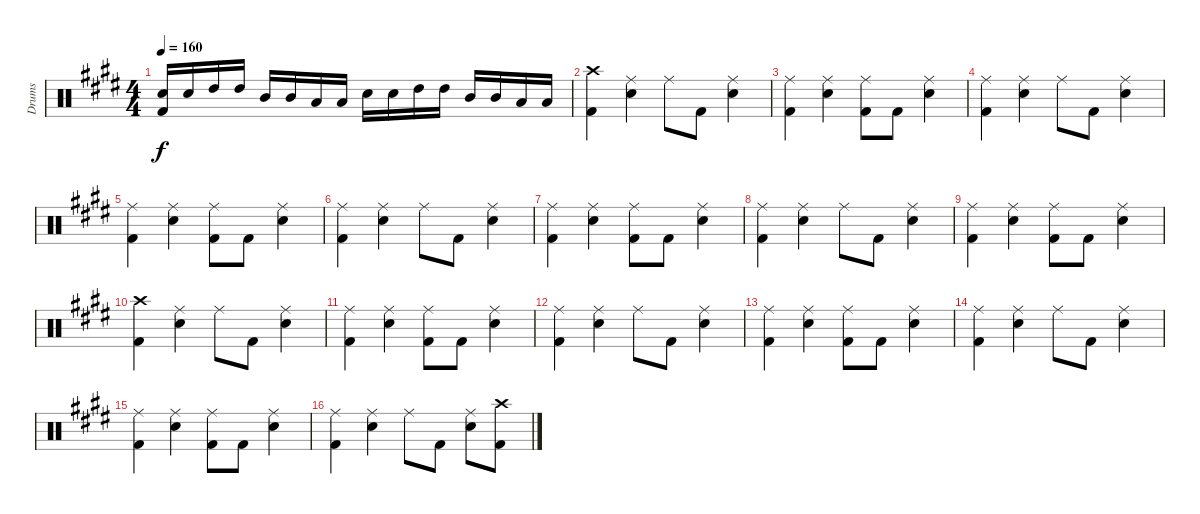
\track ("Drums" "Drums") {instrument percussion}
\staff {score}
\articulation defaults
\ts (4 4)
\tempo 160
\clef neutral
\ks e
("Electric Snare (hit)" "Kick (hit) 2").16{dy f} "Electric Snare (hit)".16 "High Tom (hit)".16 "High Tom (hit)".16 "Mid Tom (hit)".16 "Mid Tom (hit)".16 "Low Tom (hit)".16 "Low Tom (hit)".16 "Electric Snare (hit)".16 "Electric Snare (hit)".16 "High Tom (hit)".16 "High Tom (hit)".16 "Mid Tom (hit)".16 "Mid Tom (hit)".16 "Low Tom (hit)".16 "Low Tom (hit)".16 |
("Crash high (hit)" "Kick (hit) 2").4 ("Ride (middle)" "Electric Snare (hit)").4 "Ride (middle)".8 "Kick (hit) 2".8 ("Ride (middle)" "Electric Snare (hit)").4 |
("Ride (middle)" "Kick (hit) 2").4 ("Ride (middle)" "Electric Snare (hit)").4 ("Ride (middle)" "Kick (hit) 2").8 "Kick (hit) 2".8 ("Ride (middle)" "Electric Snare (hit)").4 |
("Ride (middle)" "Kick (hit) 2").4 ("Ride (middle)" "Electric Snare (hit)").4 "Ride (middle)".8 "Kick (hit) 2".8 ("Ride (middle)" "Electric Snare (hit)").4 |
("Ride (middle)" "Kick (hit) 2").4 ("Ride (middle)" "Electric Snare (hit)").4 ("Ride (middle)" "Kick (hit) 2").8 "Kick (hit) 2".8 ("Ride (middle)" "Electric Snare (hit)").4 |
("Ride (middle)" "Kick (hit) 2").4 ("Ride (middle)" "Electric Snare (hit)").4 "Ride (middle)".8 "Kick (hit) 2".8 ("Ride (middle)" "Electric Snare (hit)").4 |
("Ride (middle)" "Kick (hit) 2").4 ("Ride (middle)" "Electric Snare (hit)").4 ("Ride (middle)" "Kick (hit) 2").8 "Kick (hit) 2".8 ("Ride (middle)" "Electric Snare (hit)").4 |
("Ride (middle)" "Kick (hit) 2").4 ("Ride (middle)" "Electric Snare (hit)").4 "Ride (middle)".8 "Kick (hit) 2".8 ("Ride (middle)" "Electric Snare (hit)").4 |
("Ride (middle)" "Kick (hit) 2").4 ("Ride (middle)" "Electric Snare (hit)").4 ("Ride (middle)" "Kick (hit) 2").8 "Kick (hit) 2".8 ("Ride (middle)" "Electric Snare (hit)").4 |
("Crash high (hit)" "Kick (hit) 2").4 ("Ride (middle)" "Electric Snare (hit)").4 "Ride (middle)".8 "Kick (hit) 2".8 ("Ride (middle)" "Electric Snare (hit)").4 |
("Ride (middle)" "Kick (hit) 2").4 ("Ride (middle)" "Electric Snare (hit)").4 ("Ride (middle)" "Kick (hit) 2").8 "Kick (hit) 2".8 ("Ride (middle)" "Electric Snare (hit)").4 |
("Ride (middle)" "Kick (hit) 2").4 ("Ride (middle)" "Electric Snare (hit)").4 "Ride (middle)".8 "Kick (hit) 2".8 ("Ride (middle)" "Electric Snare (hit)").4 |
("Ride (middle)" "Kick (hit) 2").4 ("Ride (middle)" "Electric Snare (hit)").4 ("Ride (middle)" "Kick (hit) 2").8 "Kick (hit) 2".8 ("Ride (middle)" "Electric Snare (hit)").4 |
("Ride (middle)" "Kick (hit) 2").4 ("Ride (middle)" "Electric Snare (hit)").4 "Ride (middle)".8 "Kick (hit) 2".8 ("Ride (middle)" "Electric Snare (hit)").4 |
("Ride (middle)" "Kick (hit) 2").4 ("Ride (middle)" "Electric Snare (hit)").4 ("Ride (middle)" "Kick (hit) 2").8 "Kick (hit) 2".8 ("Ride (middle)" "Electric Snare (hit)").4 |
("Ride (middle)" "Kick (hit) 2").4 ("Ride (middle)" "Electric Snare (hit)").4 "Ride (middle)".8 "Kick (hit) 2".8 ("Ride (middle)" "Electric Snare (hit)").8 ("Crash high (hit)" "Kick (hit) 2").8
